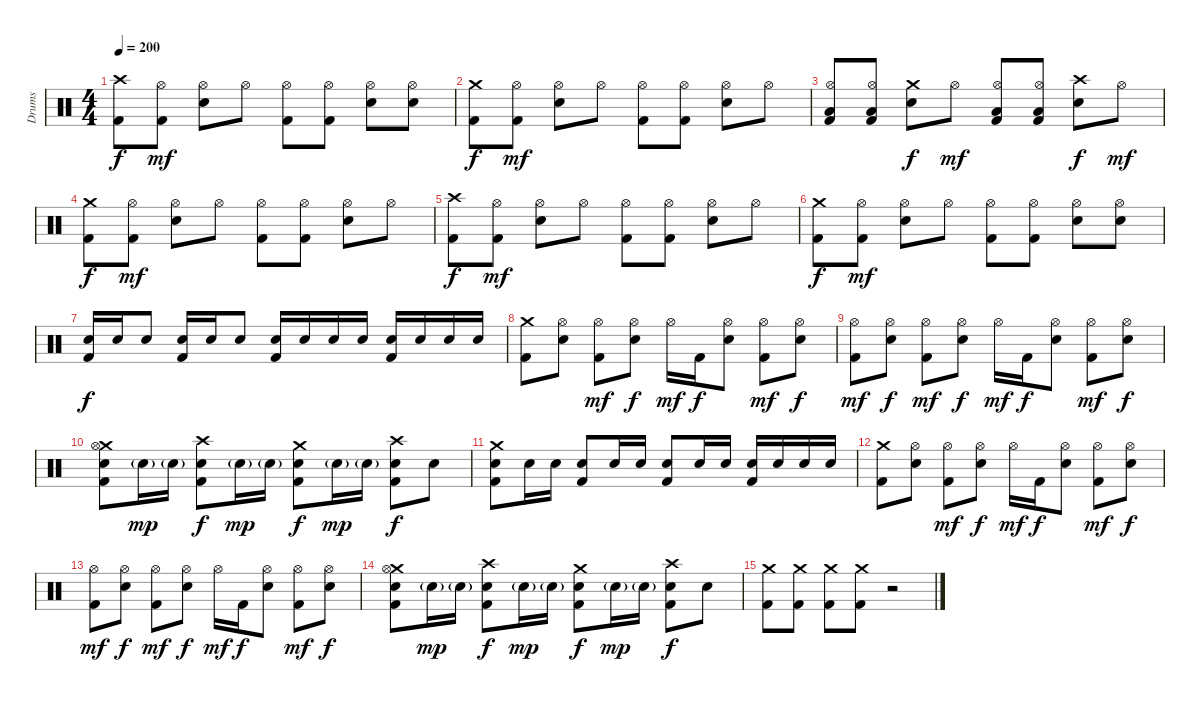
\track ("Drums" "Drums") {instrument percussion}
\staff {score}
\articulation defaults
\ts (4 4)
\tempo 200
\clef neutral
\ks c
("Crash high (hit)" "Kick (hit) 2").8{dy f} ("Hi-Hat (open)" "Kick (hit) 2").8{dy mf} ("Hi-Hat (open)" "Electric Snare (hit)").8 "Hi-Hat (open)".8 ("Hi-Hat (open)" "Kick (hit) 2").8 ("Hi-Hat (open)" "Kick (hit) 2").8 ("Hi-Hat (open)" "Electric Snare (hit)").8 ("Hi-Hat (open)" "Electric Snare (hit)").8 |
("Crash medium (hit)" "Kick (hit) 2").8{dy f} ("Hi-Hat (open)" "Kick (hit) 2").8{dy mf} ("Hi-Hat (open)" "Electric Snare (hit)").8 "Hi-Hat (open)".8 ("Hi-Hat (open)" "Kick (hit) 2").8 ("Hi-Hat (open)" "Kick (hit) 2").8 ("Hi-Hat (open)" "Electric Snare (hit)").8 "Hi-Hat (open)".8 |
("Hi-Hat (open)" "Low Tom (hit)" "Kick (hit) 2").8 ("Hi-Hat (open)" "Low Tom (hit)" "Kick (hit) 2").8 ("Crash medium (hit)" "Electric Snare (hit)").8{dy f} "Hi-Hat (open)".8{dy mf} ("Hi-Hat (open)" "Low Tom (hit)" "Kick (hit) 2").8 ("Hi-Hat (open)" "Low Tom (hit)" "Kick (hit) 2").8 ("Crash high (hit)" "Electric Snare (hit)").8{dy f} "Hi-Hat (open)".8{dy mf} |
("Crash medium (hit)" "Kick (hit) 2").8{dy f} ("Hi-Hat (open)" "Kick (hit) 2").8{dy mf} ("Hi-Hat (open)" "Electric Snare (hit)").8 "Hi-Hat (open)".8 ("Hi-Hat (open)" "Kick (hit) 2").8 ("Hi-Hat (open)" "Kick (hit) 2").8 ("Hi-Hat (open)" "Electric Snare (hit)").8 "Hi-Hat (open)".8 |
("Crash high (hit)" "Kick (hit) 2").8{dy f} ("Hi-Hat (open)" "Kick (hit) 2").8{dy mf} ("Hi-Hat (open)" "Electric Snare (hit)").8 "Hi-Hat (open)".8 ("Hi-Hat (open)" "Kick (hit) 2").8 ("Hi-Hat (open)" "Kick (hit) 2").8 ("Hi-Hat (open)" "Electric Snare (hit)").8 "Hi-Hat (open)".8 |
("Crash medium (hit)" "Kick (hit) 2").8{dy f} ("Hi-Hat (open)" "Kick (hit) 2").8{dy mf} ("Hi-Hat (open)" "Electric Snare (hit)").8 "Hi-Hat (open)".8 ("Hi-Hat (open)" "Kick (hit) 2").8 ("Hi-Hat (open)" "Kick (hit) 2").8 ("Hi-Hat (open)" "Electric Snare (hit)").8 ("Hi-Hat (open)" "Electric Snare (hit)").8 |
("Electric Snare (hit)" "Kick (hit) 2").16{dy f} "Electric Snare (hit)".16 "Electric Snare (hit)".8 ("Electric Snare (hit)" "Kick (hit) 2").16 "Electric Snare (hit)".16 "Electric Snare (hit)".8 ("Electric Snare (hit)" "Kick (hit) 2").16 "Electric Snare (hit)".16 "Electric Snare (hit)".16 "Electric Snare (hit)".16 ("Electric Snare (hit)" "Kick (hit) 2").16 "Electric Snare (hit)".16 "Electric Snare (hit)".16 "Electric Snare (hit)".16 |
("Crash medium (hit)" "Kick (hit) 2").8 ("Hi-Hat (open)" "Electric Snare (hit)").8 ("Hi-Hat (open)" "Kick (hit) 2").8{dy mf} ("Hi-Hat (open)" "Electric Snare (hit)").8{dy f} "Hi-Hat (open)".16{dy mf} "Kick (hit) 2".16{dy f} ("Hi-Hat (open)" "Electric Snare (hit)").8 ("Hi-Hat (open)" "Kick (hit) 2").8{dy mf} ("Hi-Hat (open)" "Electric Snare (hit)").8{dy f} |
("Hi-Hat (open)" "Kick (hit) 2").8{dy mf} ("Hi-Hat (open)" "Electric Snare (hit)").8{dy f} ("Hi-Hat (open)" "Kick (hit) 2").8{dy mf} ("Hi-Hat (open)" "Electric Snare (hit)").8{dy f} "Hi-Hat (open)".16{dy mf} "Kick (hit) 2".16{dy f} ("Hi-Hat (open)" "Electric Snare (hit)").8 ("Hi-Hat (open)" "Kick (hit) 2").8{dy mf} ("Hi-Hat (open)" "Electric Snare (hit)").8{dy f} |
("Crash medium (hit)" "Hi-Hat (open)" "Electric Snare (hit)" "Kick (hit) 2").8 "Electric Snare (hit)"{g}.16{dy mp} "Electric Snare (hit)"{g}.16 ("Crash high (hit)" "Electric Snare (hit)" "Kick (hit) 2").8{dy f} "Electric Snare (hit)"{g}.16{dy mp} "Electric Snare (hit)"{g}.16 ("Crash medium (hit)" "Electric Snare (hit)" "Kick (hit) 2").8{dy f} "Electric Snare (hit)"{g}.16{dy mp} "Electric Snare (hit)"{g}.16 ("Crash high (hit)" "Electric Snare (hit)" "Kick (hit) 2").8{dy f} "Electric Snare (hit)".8 |
("Crash medium (hit)" "Electric Snare (hit)" "Kick (hit) 2").8 "Electric Snare (hit)".16 "Electric Snare (hit)".16 ("Electric Snare (hit)" "Kick (hit) 2").8 "Electric Snare (hit)".16 "Electric Snare (hit)".16 ("Electric Snare (hit)" "Kick (hit) 2").8 "Electric Snare (hit)".16 "Electric Snare (hit)".16 ("Electric Snare (hit)" "Kick (hit) 2").16 "Electric Snare (hit)".16 "Electric Snare (hit)".16 "Electric Snare (hit)".16 |
("Crash medium (hit)" "Kick (hit) 2").8 ("Hi-Hat (open)" "Electric Snare (hit)").8 ("Hi-Hat (open)" "Kick (hit) 2").8{dy mf} ("Hi-Hat (open)" "Electric Snare (hit)").8{dy f} "Hi-Hat (open)".16{dy mf} "Kick (hit) 2".16{dy f} ("Hi-Hat (open)" "Electric Snare (hit)").8 ("Hi-Hat (open)" "Kick (hit) 2").8{dy mf} ("Hi-Hat (open)" "Electric Snare (hit)").8{dy f} |
("Hi-Hat (open)" "Kick (hit) 2").8{dy mf} ("Hi-Hat (open)" "Electric Snare (hit)").8{dy f} ("Hi-Hat (open)" "Kick (hit) 2").8{dy mf} ("Hi-Hat (open)" "Electric Snare (hit)").8{dy f} "Hi-Hat (open)".16{dy mf} "Kick (hit) 2".16{dy f} ("Hi-Hat (open)" "Electric Snare (hit)").8 ("Hi-Hat (open)" "Kick (hit) 2").8{dy mf} ("Hi-Hat (open)" "Electric Snare (hit)").8{dy f} |
("Crash medium (hit)" "Hi-Hat (open)" "Electric Snare (hit)" "Kick (hit) 2").8 "Electric Snare (hit)"{g}.16{dy mp} "Electric Snare (hit)"{g}.16 ("Crash high (hit)" "Electric Snare (hit)" "Kick (hit) 2").8{dy f} "Electric Snare (hit)"{g}.16{dy mp} "Electric Snare (hit)"{g}.16 ("Crash medium (hit)" "Electric Snare (hit)" "Kick (hit) 2").8{dy f} "Electric Snare (hit)"{g}.16{dy mp} "Electric Snare (hit)"{g}.16 ("Crash high (hit)" "Electric Snare (hit)" "Kick (hit) 2").8{dy f} "Electric Snare (hit)".8 |
("Crash medium (hit)" "Kick (hit) 2").8 ("Crash medium (hit)" "Kick (hit) 2").8 ("Crash medium (hit)" "Kick (hit) 2").8 ("Crash medium (hit)" "Kick (hit) 2").8 r.2
